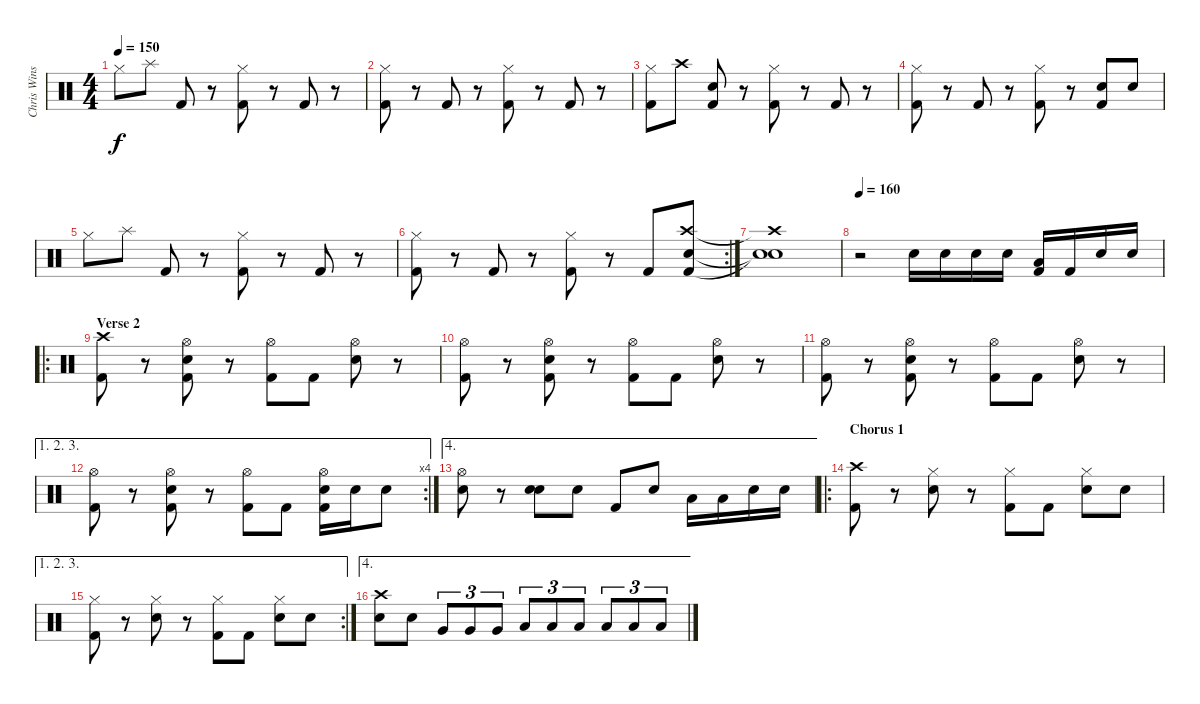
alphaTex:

\track ("Chris Winship (Drums)" "Chris Wins") {instrument percussion}
\staff {score}
\articulation defaults
\ts (4 4)
\tempo 150
\clef neutral
\ks c "Hi-Hat (closed)".8{dy f} "Splash (hit)".8 "Kick (hit) 2".8
r.8 ("Hi-Hat (closed)" "Kick (hit) 2").8 r.8 "Kick (hit) 2".8 r.8 |
("Hi-Hat (closed)" "Kick (hit) 2").8 r.8 "Kick (hit) 2".8 r.8 ("Hi-Hat (closed)" "Kick (hit) 2").8 r.8 "Kick (hit) 2".8 r.8 |
("Hi-Hat (closed)" "Kick (hit) 2").8 "Crash high (hit)".8 ("Snare (hit) 2" "Kick (hit) 2").8 r.8 ("Hi-Hat (closed)" "Kick (hit) 2").8 r.8 "Kick (hit) 2".8 r.8 |
("Hi-Hat (closed)" "Kick (hit) 2").8 r.8 "Kick (hit) 2".8 r.8 ("Hi-Hat (closed)" "Kick (hit) 2").8 r.8 ("Snare (hit) 2" "Kick (hit) 2").8 "Snare (hit) 2".8 |
"Hi-Hat (closed)".8 "Splash (hit)".8 "Kick (hit) 2".8 r.8 ("Hi-Hat (closed)" "Kick (hit) 2").8 r.8 "Kick (hit) 2".8 r.8 |
\rc 2
("Hi-Hat (closed)" "Kick (hit) 2").8 r.8 "Kick (hit) 2".8 r.8 ("Hi-Hat (closed)" "Kick (hit) 2").8 r.8 "Kick (hit) 2".8 ("Crash high (hit)" "Snare (hit) 2" "Kick (hit) 2").8 |
("Crash high (hit)"{t} "Snare (hit)"{t} "Snare (hit)"{t}).1 |
\tempo 160
r.2 "Snare (hit) 2".16 "Snare (hit) 2".16 "Snare (hit) 2".16 "Snare (hit) 2".16 ("Kick (hit) 2" "Low Floor Tom (hit)").16 "Kick (hit) 2".16 "Snare (hit) 2".16 "Snare (hit) 2".16 |
\ro
\section ("" "Verse 2")
("Crash high (hit)" "Kick (hit) 2").8 r.8 ("Hi-Hat (open)" "Snare (hit) 2" "Kick (hit) 2").8 r.8 ("Hi-Hat (open)" "Kick (hit) 2").8 "Kick (hit) 2".8 ("Hi-Hat (open)" "Snare (hit) 2").8 r.8 |
("Hi-Hat (open)" "Kick (hit) 2").8 r.8 ("Hi-Hat (open)" "Snare (hit) 2" "Kick (hit) 2").8 r.8 ("Hi-Hat (open)" "Kick (hit) 2").8 "Kick (hit) 2".8 ("Hi-Hat (open)" "Snare (hit) 2").8 r.8 |
("Hi-Hat (open)" "Kick (hit) 2").8 r.8 ("Hi-Hat (open)" "Snare (hit) 2" "Kick (hit) 2").8 r.8 ("Hi-Hat (open)" "Kick (hit) 2").8 "Kick (hit) 2".8 ("Hi-Hat (open)" "Snare (hit) 2").8 r.8 |
\ae (1 2 3)
\rc 4
("Hi-Hat (open)" "Kick (hit) 2").8 r.8 ("Hi-Hat (open)" "Snare (hit) 2" "Kick (hit) 2").8 r.8 ("Hi-Hat (open)" "Kick (hit) 2").8 "Kick (hit) 2".8 ("Hi-Hat (open)" "Kick (hit) 2" "Snare (hit) 2").16 "Snare (hit) 2".16 "Snare (hit) 2".8 |
\ae 4
("Snare (hit) 2" "Hi-Hat (open)").8 r.8 ("Electric Snare (hit)" "Snare (hit) 2").8{bd 60} "Snare (hit) 2".8 "Kick (hit) 2".8 "Snare (hit) 2".8 "Low Floor Tom (hit)".16 "Low Floor Tom (hit)".16 "Snare (hit) 2".16 "Snare (hit) 2".16 |
\ro
\section ("" "Chorus 1")
("Crash high (hit)" "Kick (hit) 2").8 r.8 ("Hi-Hat (closed)" "Snare (hit) 2").8 r.8 ("Hi-Hat (closed)" "Kick (hit) 2").8 "Kick (hit) 2".8 ("Hi-Hat (closed)" "Snare (hit) 2").8 "Snare (hit) 2".8 |
\ae (1 2 3)
\rc 2
("Hi-Hat (closed)" "Kick (hit) 2").8 r.8 ("Hi-Hat (closed)" "Snare (hit) 2").8 r.8 ("Hi-Hat (closed)" "Kick (hit) 2").8 "Kick (hit) 2".8 ("Hi-Hat (closed)" "Snare (hit) 2").8 "Snare (hit) 2".8 |
\ae 4
("Crash high (hit)" "Snare (hit) 2").8 "Snare (hit) 2".8 "Very Low Tom (hit)".8{tu (3 2)} "Very Low Tom (hit)".8{tu (3 2)} "Very Low Tom (hit)".8{tu (3 2)} "Low Tom (hit)".8{tu (3 2)} "Low Tom (hit)".8{tu (3 2)} "Low Tom (hit)".8{tu (3 2)} "Low Floor Tom (hit)".8{tu (3 2)} "Low Floor Tom (hit)".8{tu (3 2)} "Low Floor Tom (hit)".8{tu (3 2)}
